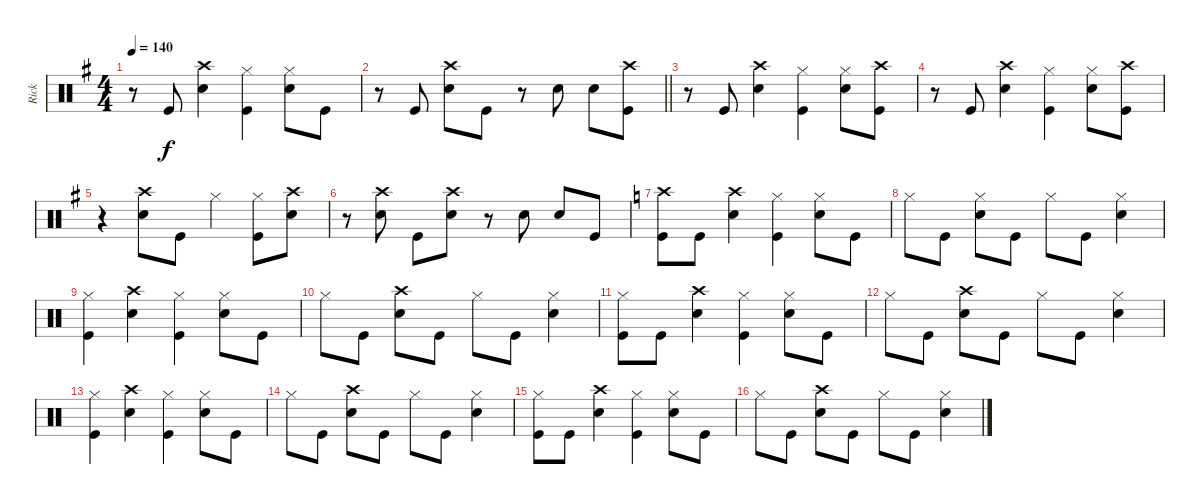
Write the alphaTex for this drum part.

\track ("Rick" "Rick") {instrument percussion}
\staff {score}
\articulation defaults
\ts (4 4)
\tempo 140
\clef neutral
\ks g
r.8{dy f} "Kick (hit)".8 ("Crash high (hit)" "Snare (hit) 2").4 ("Hi-Hat (closed)" "Kick (hit)").4 ("Hi-Hat (closed)" "Snare (hit) 2").8 "Kick (hit)".8 |
\barLineRight lightlight
r.8 "Kick (hit)".8 ("Crash high (hit)" "Snare (hit) 2").8 "Kick (hit)".8 r.8 "Snare (hit) 2".8 "Snare (hit) 2".8 ("Crash high (hit)" "Kick (hit)").8 |
r.8 "Kick (hit)".8 ("Crash high (hit)" "Snare (hit) 2").4 ("Hi-Hat (closed)" "Kick (hit)").4 ("Hi-Hat (closed)" "Snare (hit) 2").8 ("Crash high (hit)" "Kick (hit)").8 |
r.8 "Kick (hit)".8 ("Crash high (hit)" "Snare (hit) 2").4 ("Hi-Hat (closed)" "Kick (hit)").4 ("Hi-Hat (closed)" "Snare (hit) 2").8 ("Crash high (hit)" "Kick (hit)").8 |
r.4 ("Crash high (hit)" "Snare (hit) 2").8 "Kick (hit)".8 "Hi-Hat (closed)".4 ("Hi-Hat (closed)" "Kick (hit)").8 ("Crash high (hit)" "Snare (hit) 2").8 |
r.8 ("Crash high (hit)" "Snare (hit) 2").8 "Kick (hit)".8 ("Crash high (hit)" "Snare (hit) 2").8 r.8 "Snare (hit) 2".8 "Snare (hit) 2".8 "Kick (hit)".8 |
\ks c
("Crash high (hit)" "Kick (hit)").8 "Kick (hit)".8 ("Crash high (hit)" "Snare (hit) 2").4 ("Hi-Hat (closed)" "Kick (hit)").4 ("Hi-Hat (closed)" "Snare (hit) 2").8 "Kick (hit)".8 |
"Hi-Hat (closed)".8 "Kick (hit)".8 ("Hi-Hat (closed)" "Snare (hit) 2").8 "Kick (hit)".8 "Hi-Hat (closed)".8 "Kick (hit)".8 ("Hi-Hat (closed)" "Snare (hit) 2").4 |
("Hi-Hat (closed)" "Kick (hit)").4 ("Crash high (hit)" "Snare (hit) 2").4 ("Hi-Hat (closed)" "Kick (hit)").4 ("Hi-Hat (closed)" "Snare (hit) 2").8 "Kick (hit)".8 |
"Hi-Hat (closed)".8 "Kick (hit)".8 ("Crash high (hit)" "Snare (hit) 2").8 "Kick (hit)".8 "Hi-Hat (closed)".8 "Kick (hit)".8 ("Hi-Hat (closed)" "Snare (hit) 2").4 |
("Hi-Hat (closed)" "Kick (hit)").8 "Kick (hit)".8 ("Crash high (hit)" "Snare (hit) 2").4 ("Hi-Hat (closed)" "Kick (hit)").4 ("Hi-Hat (closed)" "Snare (hit) 2").8 "Kick (hit)".8 |
"Hi-Hat (closed)".8 "Kick (hit)".8 ("Crash high (hit)" "Snare (hit) 2").8 "Kick (hit)".8 "Hi-Hat (closed)".8 "Kick (hit)".8 ("Hi-Hat (closed)" "Snare (hit) 2").4 |
("Hi-Hat (closed)" "Kick (hit)").4 ("Crash high (hit)" "Snare (hit) 2").4 ("Hi-Hat (closed)" "Kick (hit)").4 ("Hi-Hat (closed)" "Snare (hit) 2").8 "Kick (hit)".8 |
"Hi-Hat (closed)".8 "Kick (hit)".8 ("Crash high (hit)" "Snare (hit) 2").8 "Kick (hit)".8 "Hi-Hat (closed)".8 "Kick (hit)".8 ("Hi-Hat (closed)" "Snare (hit) 2").4 |
("Hi-Hat (closed)" "Kick (hit)").8 "Kick (hit)".8 ("Crash high (hit)" "Snare (hit) 2").4 ("Hi-Hat (closed)" "Kick (hit)").4 ("Hi-Hat (closed)" "Snare (hit) 2").8 "Kick (hit)".8 |
"Hi-Hat (closed)".8 "Kick (hit)".8 ("Crash high (hit)" "Snare (hit) 2").8 "Kick (hit)".8 "Hi-Hat (closed)".8 "Kick (hit)".8 ("Hi-Hat (closed)" "Snare (hit) 2").4
